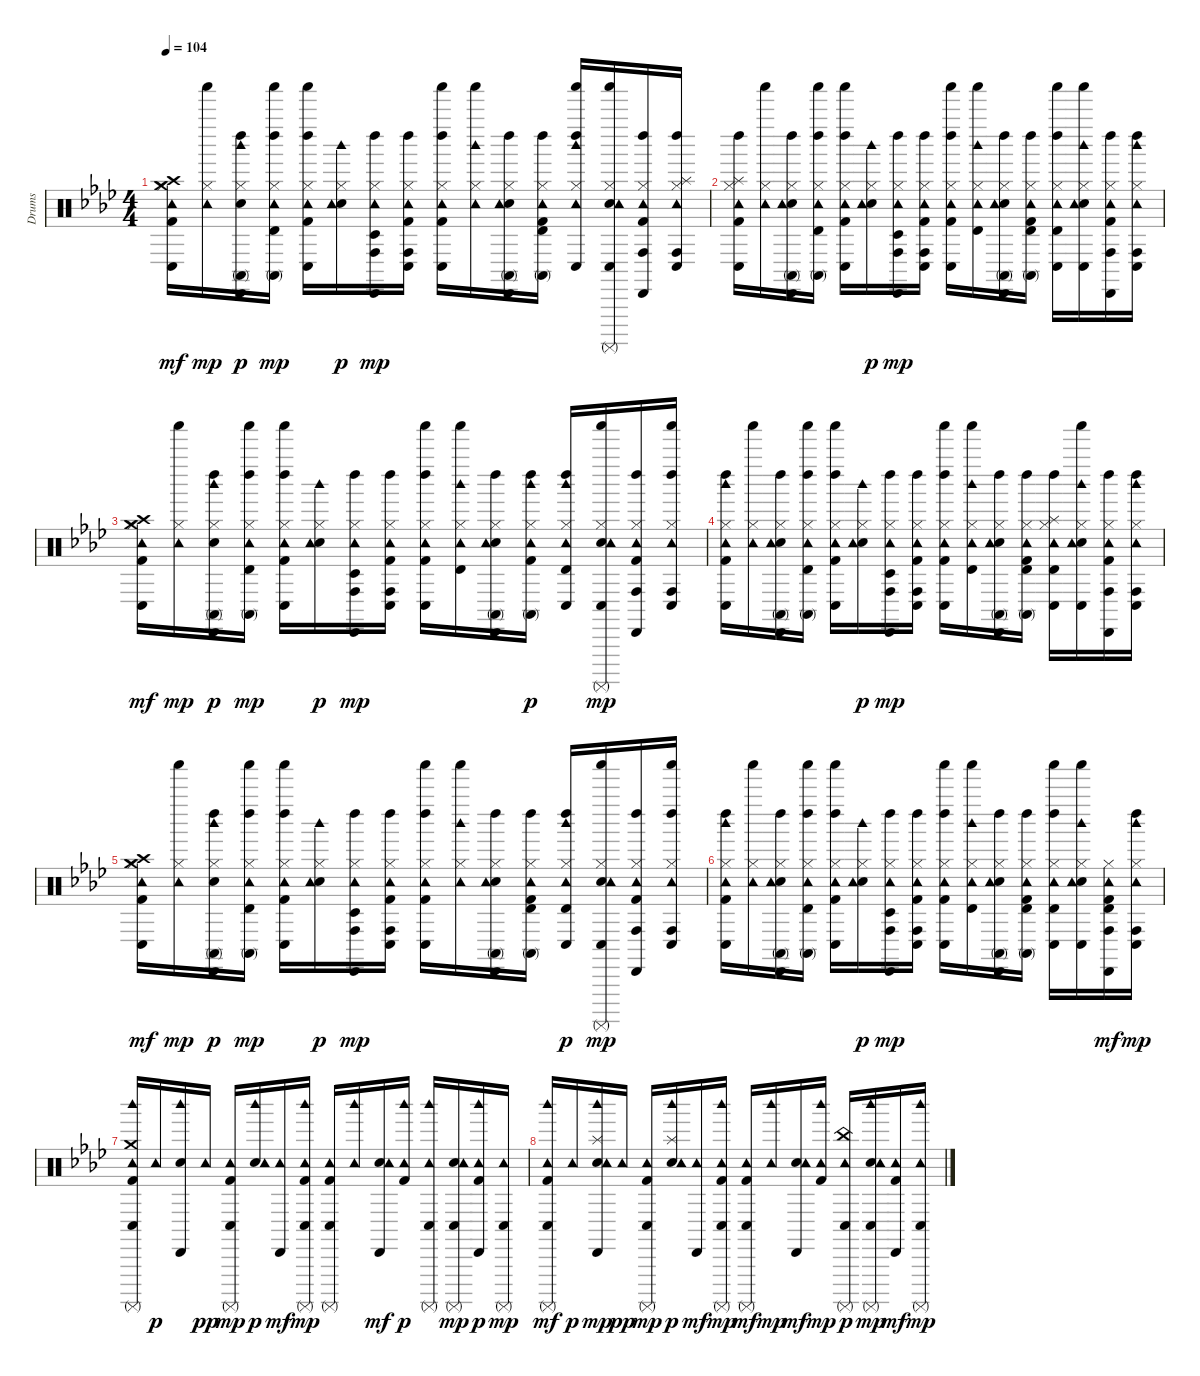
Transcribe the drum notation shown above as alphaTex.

\track ("Drums" "Drums") {instrument percussion}
\staff {score}
\articulation defaults
\ts (4 4)
\tempo 104
\clef neutral
\ks ab
("Kick (hit) 2" "Hi-Hat (closed)" "Crash high (hit)" "Tambourine (hit)" "Crash medium (hit)" "Conga low (hit)").16{dy mf} ("Hi-Hat (closed)" "Tambourine (hit)" "Shaker (hit)").16{dy mp} ("Hand Clap (hit)" "Hi-Hat (closed)" "Conga high (mute)" "Cabasa (hit)" "Left Maraca (hit)" "Woodblock high (hit)").16{dy p} ("Hi-Hat (closed)" "Tambourine (hit)" "Conga high (mute)" "Timbale high (hit)" "Left Maraca (hit)" "Shaker (hit)").16{dy mp} ("Kick (hit) 2" "Hi-Hat (closed)" "Tambourine (hit)" "Conga low (hit)" "Left Maraca (hit)" "Shaker (hit)").16 ("Hand Clap (hit)" "Hi-Hat (closed)" "Tambourine (hit)" "Woodblock high (hit)").16{dy p} ("Hi-Hat (closed)" "Tambourine (hit)" "Conga high (hit)" "Timbale low (hit)" "Cabasa (hit)" "Left Maraca (hit)").16{dy mp} ("Kick (hit) 2" "Hi-Hat (closed)" "Tambourine (hit)" "Conga high (hit)" "Conga low (hit)" "Left Maraca (hit)").16 ("Kick (hit) 2" "Hi-Hat (closed)" "Tambourine (hit)" "Conga low (hit)" "Left Maraca (hit)" "Shaker (hit)").16 ("Hi-Hat (closed)" "Tambourine (hit)" "Woodblock high (hit)" "Shaker (hit)").16 ("Hand Clap (hit)" "Hi-Hat (closed)" "Tambourine (hit)" "Conga high (mute)" "Cabasa (hit)" "Left Maraca (hit)").16 ("Kick (hit) 2" "Hi-Hat (closed)" "Tambourine (hit)" "Conga high (mute)" "Timbale high (hit)" "Left Maraca (hit)").16 ("Hi-Hat (closed)" "Tambourine (hit)" "Conga low (hit)" "Left Maraca (hit)" "Woodblock high (hit)" "Shaker (hit)").16 ("Hand Clap (hit)" "Hi-Hat (closed)" "Tambourine (hit)" "Conga low (hit)" "Shaker (hit)" "Surdo (mute)").16 ("Kick (hit) 2" "Hi-Hat (closed)" "Tambourine (hit)" "Conga high (hit)" "Cabasa (hit)" "Left Maraca (hit)").16 ("Hi-Hat (closed)" "Tambourine (hit)" "Splash (hit)" "Conga high (hit)" "Conga low (hit)" "Left Maraca (hit)").16 |
("Kick (hit) 2" "Hi-Hat (closed)" "Tambourine (hit)" "Splash (hit)" "Conga low (hit)" "Left Maraca (hit)").16 ("Hi-Hat (closed)" "Tambourine (hit)" "Shaker (hit)").16 ("Hand Clap (hit)" "Hi-Hat (closed)" "Tambourine (hit)" "Conga high (mute)" "Cabasa (hit)" "Left Maraca (hit)").16 ("Hi-Hat (closed)" "Tambourine (hit)" "Conga high (mute)" "Timbale high (hit)" "Left Maraca (hit)" "Shaker (hit)").16 ("Kick (hit) 2" "Hi-Hat (closed)" "Tambourine (hit)" "Conga low (hit)" "Left Maraca (hit)" "Shaker (hit)").16 ("Hand Clap (hit)" "Hi-Hat (closed)" "Tambourine (hit)" "Woodblock high (hit)").16{dy p} ("Hi-Hat (closed)" "Tambourine (hit)" "Conga high (hit)" "Timbale low (hit)" "Cabasa (hit)" "Left Maraca (hit)").16{dy mp} ("Kick (hit) 2" "Hi-Hat (closed)" "Tambourine (hit)" "Conga high (hit)" "Conga low (hit)" "Left Maraca (hit)").16 ("Kick (hit) 2" "Hi-Hat (closed)" "Tambourine (hit)" "Conga low (hit)" "Left Maraca (hit)" "Shaker (hit)").16 ("Hi-Hat (closed)" "Tambourine (hit)" "Timbale high (hit)" "Woodblock high (hit)" "Shaker (hit)").16 ("Hand Clap (hit)" "Hi-Hat (closed)" "Tambourine (hit)" "Conga high (mute)" "Cabasa (hit)" "Left Maraca (hit)").16 ("Kick (hit) 2" "Hi-Hat (closed)" "Tambourine (hit)" "Conga high (mute)" "Timbale high (hit)" "Left Maraca (hit)").16 ("Hi-Hat (closed)" "Tambourine (hit)" "Conga low (hit)" "Timbale high (hit)" "Left Maraca (hit)" "Shaker (hit)").16 ("Hand Clap (hit)" "Hi-Hat (closed)" "Tambourine (hit)" "Conga low (hit)" "Woodblock high (hit)" "Shaker (hit)").16 ("Kick (hit) 2" "Hi-Hat (closed)" "Tambourine (hit)" "Conga high (hit)" "Cabasa (hit)" "Left Maraca (hit)").16 ("Hi-Hat (closed)" "Tambourine (hit)" "Conga high (hit)" "Conga low (hit)" "Left Maraca (hit)" "Woodblock high (hit)").16 |
("Kick (hit) 2" "Hi-Hat (closed)" "Crash high (hit)" "Tambourine (hit)" "Crash medium (hit)" "Conga low (hit)").16{dy mf} ("Hi-Hat (closed)" "Tambourine (hit)" "Shaker (hit)").16{dy mp} ("Hand Clap (hit)" "Hi-Hat (closed)" "Conga high (mute)" "Cabasa (hit)" "Left Maraca (hit)" "Woodblock high (hit)").16{dy p} ("Hi-Hat (closed)" "Tambourine (hit)" "Conga high (mute)" "Timbale high (hit)" "Left Maraca (hit)" "Shaker (hit)").16{dy mp} ("Kick (hit) 2" "Hi-Hat (closed)" "Tambourine (hit)" "Conga low (hit)" "Left Maraca (hit)" "Shaker (hit)").16 ("Hand Clap (hit)" "Hi-Hat (closed)" "Tambourine (hit)" "Woodblock high (hit)").16{dy p} ("Hi-Hat (closed)" "Tambourine (hit)" "Conga high (hit)" "Timbale low (hit)" "Cabasa (hit)" "Left Maraca (hit)").16{dy mp} ("Kick (hit) 2" "Hi-Hat (closed)" "Tambourine (hit)" "Conga high (hit)" "Conga low (hit)" "Left Maraca (hit)").16 ("Kick (hit) 2" "Hi-Hat (closed)" "Tambourine (hit)" "Conga low (hit)" "Left Maraca (hit)" "Shaker (hit)").16 ("Hi-Hat (closed)" "Tambourine (hit)" "Timbale high (hit)" "Woodblock high (hit)" "Shaker (hit)").16 ("Hand Clap (hit)" "Hi-Hat (closed)" "Tambourine (hit)" "Conga high (mute)" "Cabasa (hit)" "Left Maraca (hit)").16 ("Kick (hit) 2" "Hi-Hat (closed)" "Tambourine (hit)" "Conga high (mute)" "Left Maraca (hit)" "Woodblock high (hit)").16{dy p} ("Hi-Hat (closed)" "Tambourine (hit)" "Conga low (hit)" "Timbale high (hit)" "Left Maraca (hit)" "Woodblock high (hit)").16 ("Hand Clap (hit)" "Hi-Hat (closed)" "Tambourine (hit)" "Conga low (hit)" "Shaker (hit)" "Surdo (mute)").16{dy mp} ("Kick (hit) 2" "Hi-Hat (closed)" "Tambourine (hit)" "Conga high (hit)" "Cabasa (hit)" "Left Maraca (hit)").16 ("Hi-Hat (closed)" "Tambourine (hit)" "Conga high (hit)" "Conga low (hit)" "Left Maraca (hit)" "Shaker (hit)").16 |
("Kick (hit) 2" "Hi-Hat (closed)" "Tambourine (hit)" "Conga low (hit)" "Left Maraca (hit)" "Woodblock high (hit)").16 ("Hi-Hat (closed)" "Tambourine (hit)" "Shaker (hit)").16 ("Hand Clap (hit)" "Hi-Hat (closed)" "Tambourine (hit)" "Conga high (mute)" "Cabasa (hit)" "Left Maraca (hit)").16 ("Hi-Hat (closed)" "Tambourine (hit)" "Conga high (mute)" "Timbale high (hit)" "Left Maraca (hit)" "Shaker (hit)").16 ("Kick (hit) 2" "Hi-Hat (closed)" "Tambourine (hit)" "Conga low (hit)" "Left Maraca (hit)" "Shaker (hit)").16 ("Hand Clap (hit)" "Hi-Hat (closed)" "Tambourine (hit)" "Woodblock high (hit)").16{dy p} ("Hi-Hat (closed)" "Tambourine (hit)" "Conga high (hit)" "Timbale low (hit)" "Cabasa (hit)" "Left Maraca (hit)").16{dy mp} ("Kick (hit) 2" "Hi-Hat (closed)" "Tambourine (hit)" "Conga high (hit)" "Conga low (hit)" "Left Maraca (hit)").16 ("Kick (hit) 2" "Hi-Hat (closed)" "Tambourine (hit)" "Conga low (hit)" "Left Maraca (hit)" "Shaker (hit)").16 ("Hi-Hat (closed)" "Tambourine (hit)" "Timbale high (hit)" "Woodblock high (hit)" "Shaker (hit)").16 ("Hand Clap (hit)" "Hi-Hat (closed)" "Tambourine (hit)" "Conga high (mute)" "Cabasa (hit)" "Left Maraca (hit)").16 ("Kick (hit) 2" "Hi-Hat (closed)" "Tambourine (hit)" "Conga high (mute)" "Timbale high (hit)" "Left Maraca (hit)").16 ("Hi-Hat (closed)" "Tambourine (hit)" "Splash (hit)" "Conga low (hit)" "Timbale high (hit)" "Left Maraca (hit)").16 ("Hand Clap (hit)" "Hi-Hat (closed)" "Tambourine (hit)" "Conga low (hit)" "Woodblock high (hit)" "Shaker (hit)").16 ("Kick (hit) 2" "Hi-Hat (closed)" "Tambourine (hit)" "Conga high (hit)" "Cabasa (hit)" "Left Maraca (hit)").16 ("Hi-Hat (closed)" "Tambourine (hit)" "Conga high (hit)" "Conga low (hit)" "Left Maraca (hit)" "Woodblock high (hit)").16 |
("Kick (hit) 2" "Hi-Hat (closed)" "Crash high (hit)" "Tambourine (hit)" "Crash medium (hit)" "Conga low (hit)").16{dy mf} ("Hi-Hat (closed)" "Tambourine (hit)" "Shaker (hit)").16{dy mp} ("Hand Clap (hit)" "Hi-Hat (closed)" "Conga high (mute)" "Cabasa (hit)" "Left Maraca (hit)" "Woodblock high (hit)").16{dy p} ("Hi-Hat (closed)" "Tambourine (hit)" "Conga high (mute)" "Timbale high (hit)" "Left Maraca (hit)" "Shaker (hit)").16{dy mp} ("Kick (hit) 2" "Hi-Hat (closed)" "Tambourine (hit)" "Conga low (hit)" "Left Maraca (hit)" "Shaker (hit)").16 ("Hand Clap (hit)" "Hi-Hat (closed)" "Tambourine (hit)" "Woodblock high (hit)").16{dy p} ("Hi-Hat (closed)" "Tambourine (hit)" "Conga high (hit)" "Timbale low (hit)" "Cabasa (hit)" "Left Maraca (hit)").16{dy mp} ("Kick (hit) 2" "Hi-Hat (closed)" "Tambourine (hit)" "Conga high (hit)" "Conga low (hit)" "Left Maraca (hit)").16 ("Kick (hit) 2" "Hi-Hat (closed)" "Tambourine (hit)" "Conga low (hit)" "Left Maraca (hit)" "Shaker (hit)").16 ("Hi-Hat (closed)" "Tambourine (hit)" "Woodblock high (hit)" "Shaker (hit)").16 ("Hand Clap (hit)" "Hi-Hat (closed)" "Tambourine (hit)" "Conga high (mute)" "Cabasa (hit)" "Left Maraca (hit)").16 ("Kick (hit) 2" "Hi-Hat (closed)" "Tambourine (hit)" "Conga high (mute)" "Timbale high (hit)" "Left Maraca (hit)").16 ("Hi-Hat (closed)" "Tambourine (hit)" "Conga low (hit)" "Timbale high (hit)" "Left Maraca (hit)" "Woodblock high (hit)").16{dy p} ("Hand Clap (hit)" "Hi-Hat (closed)" "Tambourine (hit)" "Conga low (hit)" "Shaker (hit)" "Surdo (mute)").16{dy mp} ("Kick (hit) 2" "Hi-Hat (closed)" "Tambourine (hit)" "Conga high (hit)" "Cabasa (hit)" "Left Maraca (hit)").16 ("Hi-Hat (closed)" "Tambourine (hit)" "Conga high (hit)" "Conga low (hit)" "Left Maraca (hit)" "Shaker (hit)").16 |
("Kick (hit) 2" "Hi-Hat (closed)" "Tambourine (hit)" "Conga low (hit)" "Left Maraca (hit)" "Woodblock high (hit)").16 ("Hi-Hat (closed)" "Tambourine (hit)" "Shaker (hit)").16 ("Hand Clap (hit)" "Hi-Hat (closed)" "Tambourine (hit)" "Conga high (mute)" "Cabasa (hit)" "Left Maraca (hit)").16 ("Hi-Hat (closed)" "Tambourine (hit)" "Conga high (mute)" "Timbale high (hit)" "Left Maraca (hit)" "Shaker (hit)").16 ("Kick (hit) 2" "Hi-Hat (closed)" "Tambourine (hit)" "Conga low (hit)" "Left Maraca (hit)" "Shaker (hit)").16 ("Hand Clap (hit)" "Hi-Hat (closed)" "Tambourine (hit)" "Woodblock high (hit)").16{dy p} ("Hi-Hat (closed)" "Tambourine (hit)" "Conga high (hit)" "Timbale low (hit)" "Cabasa (hit)" "Left Maraca (hit)").16{dy mp} ("Kick (hit) 2" "Hi-Hat (closed)" "Tambourine (hit)" "Conga high (hit)" "Conga low (hit)" "Left Maraca (hit)").16 ("Kick (hit) 2" "Hi-Hat (closed)" "Tambourine (hit)" "Conga low (hit)" "Left Maraca (hit)" "Shaker (hit)").16 ("Hi-Hat (closed)" "Tambourine (hit)" "Timbale high (hit)" "Woodblock high (hit)" "Shaker (hit)").16 ("Hand Clap (hit)" "Hi-Hat (closed)" "Tambourine (hit)" "Conga high (mute)" "Cabasa (hit)" "Left Maraca (hit)").16 ("Kick (hit) 2" "Hi-Hat (closed)" "Tambourine (hit)" "Conga high (mute)" "Timbale high (hit)" "Left Maraca (hit)").16 ("Hi-Hat (closed)" "Tambourine (hit)" "Conga low (hit)" "Timbale high (hit)" "Left Maraca (hit)" "Shaker (hit)").16 ("Hand Clap (hit)" "Hi-Hat (closed)" "Tambourine (hit)" "Conga low (hit)" "Woodblock high (hit)" "Shaker (hit)").16 ("Kick (hit) 2" "Hi-Hat (closed)" "Tambourine (hit)" "Conga high (hit)" "Timbale high (hit)" "Cabasa (hit)").16{dy mf} ("Hi-Hat (closed)" "Tambourine (hit)" "Conga high (hit)" "Conga low (hit)" "Left Maraca (hit)" "Woodblock high (hit)").16{dy mp} |
("Kick (hit) 2" "Tambourine (hit)" "Crash medium (hit)" "Conga low (hit)" "Woodblock high (hit)" "Surdo (mute)").16 "Tambourine (hit)".16{dy p} ("Hand Clap (hit)" "Cabasa (hit)" "Woodblock high (hit)").16 "Tambourine (hit)".16{dy pp} ("Kick (hit) 2" "Tambourine (hit)" "Conga low (hit)" "Surdo (mute)").16{dy mp} ("Hand Clap (hit)" "Tambourine (hit)" "Woodblock high (hit)").16{dy p} ("Tambourine (hit)" "Cabasa (hit)").16{dy mf} ("Kick (hit) 2" "Tambourine (hit)" "Conga low (hit)" "Woodblock high (hit)" "Surdo (mute)").16{dy mp} ("Kick (hit) 2" "Tambourine (hit)" "Conga low (hit)" "Surdo (mute)").16 ("Tambourine (hit)" "Woodblock high (hit)").16 ("Hand Clap (hit)" "Tambourine (hit)" "Cabasa (hit)").16{dy mf} ("Kick (hit) 2" "Tambourine (hit)" "Woodblock high (hit)").16{dy p} ("Tambourine (hit)" "Conga low (hit)" "Woodblock high (hit)" "Surdo (mute)").16 ("Hand Clap (hit)" "Tambourine (hit)" "Conga low (hit)" "Surdo (mute)").16{dy mp} ("Kick (hit) 2" "Tambourine (hit)" "Cabasa (hit)" "Woodblock high (hit)").16{dy p} ("Tambourine (hit)" "Conga low (hit)" "Surdo (mute)").16{dy mp} |
("Kick (hit) 2" "Tambourine (hit)" "Conga low (hit)" "Woodblock high (hit)" "Surdo (mute)").16{dy mf} "Tambourine (hit)".16{dy p} ("Hand Clap (hit)" "Tambourine (hit)" "Splash (hit)" "Cabasa (hit)" "Woodblock high (hit)").16{dy mp} "Tambourine (hit)".16{dy pp} ("Kick (hit) 2" "Tambourine (hit)" "Conga low (hit)" "Surdo (mute)").16{dy mp} ("Hand Clap (hit)" "Tambourine (hit)" "Splash (hit)" "Woodblock high (hit)").16{dy p} ("Tambourine (hit)" "Cabasa (hit)").16{dy mf} ("Kick (hit) 2" "Tambourine (hit)" "Conga low (hit)" "Woodblock high (hit)" "Surdo (mute)").16{dy mp} ("Kick (hit) 2" "Tambourine (hit)" "Conga low (hit)" "Surdo (mute)").16{dy mf} ("Tambourine (hit)" "Woodblock high (hit)").16{dy mp} ("Hand Clap (hit)" "Tambourine (hit)" "Cabasa (hit)").16{dy mf} ("Kick (hit) 2" "Tambourine (hit)" "Woodblock high (hit)").16{dy mp} ("China (hit)" "Tambourine (hit)" "Conga low (hit)" "Surdo (mute)").16{dy p} ("Hand Clap (hit)" "Tambourine (hit)" "Conga low (hit)" "Woodblock high (hit)" "Surdo (mute)").16{dy mp} ("Kick (hit) 2" "Tambourine (hit)" "Cabasa (hit)").16{dy mf} ("Tambourine (hit)" "Conga low (hit)" "Woodblock high (hit)" "Surdo (mute)").16{dy mp}
